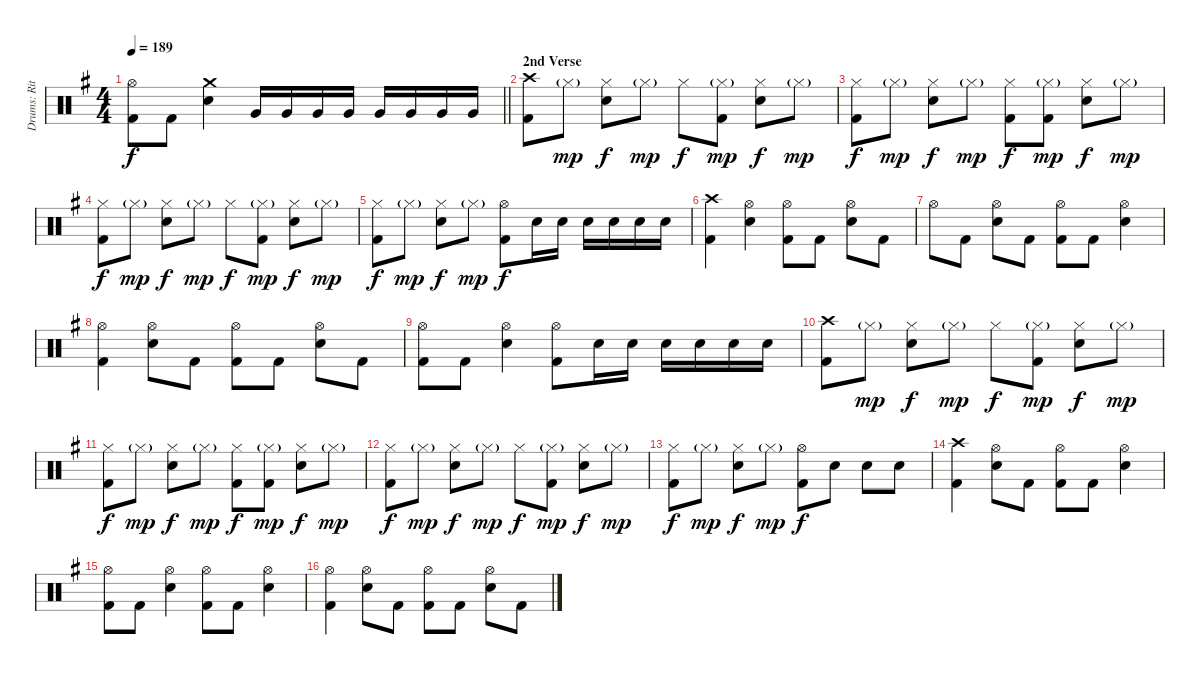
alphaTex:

\track ("Drums: Ritsu Tainaka" "Drums: Rit") {instrument percussion}
\staff {score}
\articulation defaults
\ts (4 4)
\tempo 189
\clef neutral
\barLineRight lightlight
\ks g
("Hi-Hat (open)" "Kick (hit) 2").8{dy f} "Kick (hit) 2".8 ("Crash medium (hit)" "Electric Snare (hit)").4 "Very Low Tom (hit)".16 "Very Low Tom (hit)".16 "Very Low Tom (hit)".16 "Very Low Tom (hit)".16 "Very Low Tom (hit)".16 "Very Low Tom (hit)".16 "Very Low Tom (hit)".16 "Very Low Tom (hit)".16 |
\section ("" "2nd Verse")
("Crash high (hit)" "Kick (hit) 2").8 "Hi-Hat (closed)"{g}.8{dy mp} ("Hi-Hat (closed)" "Electric Snare (hit)").8{dy f} "Hi-Hat (closed)"{g}.8{dy mp} "Hi-Hat (closed)".8{dy f} ("Hi-Hat (closed)"{g} "Kick (hit) 2").8{dy mp} ("Hi-Hat (closed)" "Electric Snare (hit)").8{dy f} "Hi-Hat (closed)"{g}.8{dy mp} |
("Hi-Hat (closed)" "Kick (hit) 2").8{dy f} "Hi-Hat (closed)"{g}.8{dy mp} ("Hi-Hat (closed)" "Electric Snare (hit)").8{dy f} "Hi-Hat (closed)"{g}.8{dy mp} ("Hi-Hat (closed)" "Kick (hit) 2").8{dy f} ("Hi-Hat (closed)"{g} "Kick (hit) 2").8{dy mp} ("Hi-Hat (closed)" "Electric Snare (hit)").8{dy f} "Hi-Hat (closed)"{g}.8{dy mp} |
("Hi-Hat (closed)" "Kick (hit) 2").8{dy f} "Hi-Hat (closed)"{g}.8{dy mp} ("Hi-Hat (closed)" "Electric Snare (hit)").8{dy f} "Hi-Hat (closed)"{g}.8{dy mp} "Hi-Hat (closed)".8{dy f} ("Hi-Hat (closed)"{g} "Kick (hit) 2").8{dy mp} ("Hi-Hat (closed)" "Electric Snare (hit)").8{dy f} "Hi-Hat (closed)"{g}.8{dy mp} |
("Hi-Hat (closed)" "Kick (hit) 2").8{dy f} "Hi-Hat (closed)"{g}.8{dy mp} ("Hi-Hat (closed)" "Electric Snare (hit)").8{dy f} "Hi-Hat (closed)"{g}.8{dy mp} ("Hi-Hat (open)" "Kick (hit) 2").8{dy f} "Electric Snare (hit)".16 "Electric Snare (hit)".16 "Electric Snare (hit)".16 "Electric Snare (hit)".16 "Electric Snare (hit)".16 "Electric Snare (hit)".16 |
("Crash high (hit)" "Kick (hit) 2").4 ("Hi-Hat (open)" "Electric Snare (hit)").4 ("Hi-Hat (open)" "Kick (hit) 2").8 "Kick (hit) 2".8 ("Hi-Hat (open)" "Electric Snare (hit)").8 "Kick (hit) 2".8 |
"Hi-Hat (open)".8 "Kick (hit) 2".8 ("Hi-Hat (open)" "Electric Snare (hit)").8 "Kick (hit) 2".8 ("Hi-Hat (open)" "Kick (hit) 2").8 "Kick (hit) 2".8 ("Hi-Hat (open)" "Electric Snare (hit)").4 |
("Hi-Hat (open)" "Kick (hit) 2").4 ("Hi-Hat (open)" "Electric Snare (hit)").8 "Kick (hit) 2".8 ("Hi-Hat (open)" "Kick (hit) 2").8 "Kick (hit) 2".8 ("Hi-Hat (open)" "Electric Snare (hit)").8 "Kick (hit) 2".8 |
("Hi-Hat (open)" "Kick (hit) 2").8 "Kick (hit) 2".8 ("Hi-Hat (open)" "Electric Snare (hit)").4 ("Hi-Hat (open)" "Kick (hit) 2").8 "Electric Snare (hit)".16 "Electric Snare (hit)".16 "Electric Snare (hit)".16 "Electric Snare (hit)".16 "Electric Snare (hit)".16 "Electric Snare (hit)".16 |
("Crash high (hit)" "Kick (hit) 2").8 "Hi-Hat (closed)"{g}.8{dy mp} ("Hi-Hat (closed)" "Electric Snare (hit)").8{dy f} "Hi-Hat (closed)"{g}.8{dy mp} "Hi-Hat (closed)".8{dy f} ("Hi-Hat (closed)"{g} "Kick (hit) 2").8{dy mp} ("Hi-Hat (closed)" "Electric Snare (hit)").8{dy f} "Hi-Hat (closed)"{g}.8{dy mp} |
("Hi-Hat (closed)" "Kick (hit) 2").8{dy f} "Hi-Hat (closed)"{g}.8{dy mp} ("Hi-Hat (closed)" "Electric Snare (hit)").8{dy f} "Hi-Hat (closed)"{g}.8{dy mp} ("Hi-Hat (closed)" "Kick (hit) 2").8{dy f} ("Hi-Hat (closed)"{g} "Kick (hit) 2").8{dy mp} ("Hi-Hat (closed)" "Electric Snare (hit)").8{dy f} "Hi-Hat (closed)"{g}.8{dy mp} |
("Hi-Hat (closed)" "Kick (hit) 2").8{dy f} "Hi-Hat (closed)"{g}.8{dy mp} ("Hi-Hat (closed)" "Electric Snare (hit)").8{dy f} "Hi-Hat (closed)"{g}.8{dy mp} "Hi-Hat (closed)".8{dy f} ("Hi-Hat (closed)"{g} "Kick (hit) 2").8{dy mp} ("Hi-Hat (closed)" "Electric Snare (hit)").8{dy f} "Hi-Hat (closed)"{g}.8{dy mp} |
("Hi-Hat (closed)" "Kick (hit) 2").8{dy f} "Hi-Hat (closed)"{g}.8{dy mp} ("Hi-Hat (closed)" "Electric Snare (hit)").8{dy f} "Hi-Hat (closed)"{g}.8{dy mp} ("Hi-Hat (open)" "Kick (hit) 2").8{dy f} "Electric Snare (hit)".8 "Electric Snare (hit)".8 "Electric Snare (hit)".8 |
("Crash high (hit)" "Kick (hit) 2").4 ("Hi-Hat (open)" "Electric Snare (hit)").8 "Kick (hit) 2".8 ("Hi-Hat (open)" "Kick (hit) 2").8 "Kick (hit) 2".8 ("Hi-Hat (open)" "Electric Snare (hit)").4 |
("Hi-Hat (open)" "Kick (hit) 2").8 "Kick (hit) 2".8 ("Hi-Hat (open)" "Electric Snare (hit)").4 ("Hi-Hat (open)" "Kick (hit) 2").8 "Kick (hit) 2".8 ("Hi-Hat (open)" "Electric Snare (hit)").4 |
("Hi-Hat (open)" "Kick (hit) 2").4 ("Hi-Hat (open)" "Electric Snare (hit)").8 "Kick (hit) 2".8 ("Hi-Hat (open)" "Kick (hit) 2").8 "Kick (hit) 2".8 ("Hi-Hat (open)" "Electric Snare (hit)").8 "Kick (hit) 2".8
